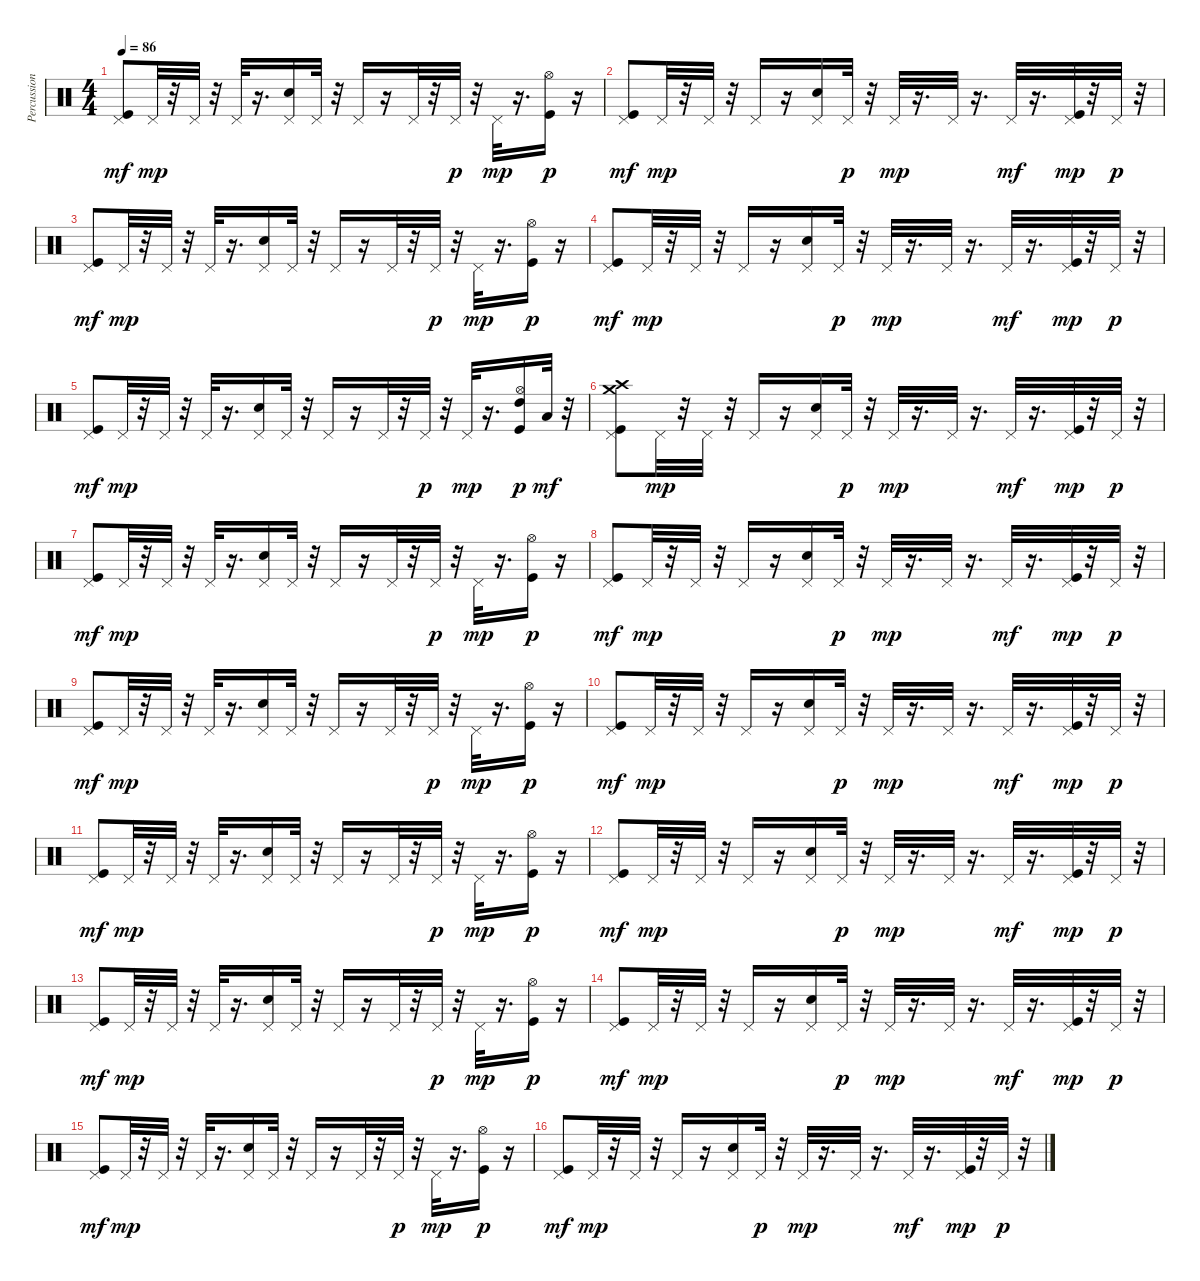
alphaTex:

\track ("Percussions" "Percussion") {instrument percussion}
\staff {score}
\articulation defaults
\ts (4 4)
\tempo 86
\clef neutral
\ks c
("Kick (hit)" "Pedal Hi-Hat (hit)").8{dy mf} "Pedal Hi-Hat (hit)".32{dy mp} r.32 "Pedal Hi-Hat (hit)".32 r.32 "Pedal Hi-Hat (hit)".32 r.16{d} ("Electric Snare (hit)" "Pedal Hi-Hat (hit)").16 "Pedal Hi-Hat (hit)".32 r.32 "Pedal Hi-Hat (hit)".16 r.16 "Pedal Hi-Hat (hit)".32 r.32 "Pedal Hi-Hat (hit)".32{dy p} r.32 "Pedal Hi-Hat (hit)".32{dy mp} r.16{d} ("Kick (hit)" "Hi-Hat (open)").16{dy p} r.16 |
("Kick (hit)" "Pedal Hi-Hat (hit)").8{dy mf} "Pedal Hi-Hat (hit)".32{dy mp} r.32 "Pedal Hi-Hat (hit)".32 r.32 "Pedal Hi-Hat (hit)".16 r.16 ("Electric Snare (hit)" "Pedal Hi-Hat (hit)").16 "Pedal Hi-Hat (hit)".32{dy p} r.32 "Pedal Hi-Hat (hit)".32{dy mp} r.16{d} "Pedal Hi-Hat (hit)".32 r.16{d} "Pedal Hi-Hat (hit)".32{dy mf} r.16{d} ("Kick (hit)" "Pedal Hi-Hat (hit)").32{dy mp} r.32 "Pedal Hi-Hat (hit)".32{dy p} r.32 |
("Kick (hit)" "Pedal Hi-Hat (hit)").8{dy mf} "Pedal Hi-Hat (hit)".32{dy mp} r.32 "Pedal Hi-Hat (hit)".32 r.32 "Pedal Hi-Hat (hit)".32 r.16{d} ("Electric Snare (hit)" "Pedal Hi-Hat (hit)").16 "Pedal Hi-Hat (hit)".32 r.32 "Pedal Hi-Hat (hit)".16 r.16 "Pedal Hi-Hat (hit)".32 r.32 "Pedal Hi-Hat (hit)".32{dy p} r.32 "Pedal Hi-Hat (hit)".32{dy mp} r.16{d} ("Kick (hit)" "Hi-Hat (open)").16{dy p} r.16 |
("Kick (hit)" "Pedal Hi-Hat (hit)").8{dy mf} "Pedal Hi-Hat (hit)".32{dy mp} r.32 "Pedal Hi-Hat (hit)".32 r.32 "Pedal Hi-Hat (hit)".16 r.16 ("Electric Snare (hit)" "Pedal Hi-Hat (hit)").16 "Pedal Hi-Hat (hit)".32{dy p} r.32 "Pedal Hi-Hat (hit)".32{dy mp} r.16{d} "Pedal Hi-Hat (hit)".32 r.16{d} "Pedal Hi-Hat (hit)".32{dy mf} r.16{d} ("Kick (hit)" "Pedal Hi-Hat (hit)").32{dy mp} r.32 "Pedal Hi-Hat (hit)".32{dy p} r.32 |
("Kick (hit)" "Pedal Hi-Hat (hit)").8{dy mf} "Pedal Hi-Hat (hit)".32{dy mp} r.32 "Pedal Hi-Hat (hit)".32 r.32 "Pedal Hi-Hat (hit)".32 r.16{d} ("Electric Snare (hit)" "Pedal Hi-Hat (hit)").16 "Pedal Hi-Hat (hit)".32 r.32 "Pedal Hi-Hat (hit)".16 r.16 "Pedal Hi-Hat (hit)".32 r.32 "Pedal Hi-Hat (hit)".32{dy p} r.32 "Pedal Hi-Hat (hit)".32{dy mp} r.16{d} ("Kick (hit)" "Hi-Hat (open)" "High Tom (hit)").16{dy p} "Low Tom (hit)".32{dy mf} r.32 |
("Kick (hit)" "Pedal Hi-Hat (hit)" "Crash high (hit)" "Crash medium (hit)").8 "Pedal Hi-Hat (hit)".32{dy mp} r.32 "Pedal Hi-Hat (hit)".32 r.32 "Pedal Hi-Hat (hit)".16 r.16 ("Electric Snare (hit)" "Pedal Hi-Hat (hit)").16 "Pedal Hi-Hat (hit)".32{dy p} r.32 "Pedal Hi-Hat (hit)".32{dy mp} r.16{d} "Pedal Hi-Hat (hit)".32 r.16{d} "Pedal Hi-Hat (hit)".32{dy mf} r.16{d} ("Kick (hit)" "Pedal Hi-Hat (hit)").32{dy mp} r.32 "Pedal Hi-Hat (hit)".32{dy p} r.32 |
("Kick (hit)" "Pedal Hi-Hat (hit)").8{dy mf} "Pedal Hi-Hat (hit)".32{dy mp} r.32 "Pedal Hi-Hat (hit)".32 r.32 "Pedal Hi-Hat (hit)".32 r.16{d} ("Electric Snare (hit)" "Pedal Hi-Hat (hit)").16 "Pedal Hi-Hat (hit)".32 r.32 "Pedal Hi-Hat (hit)".16 r.16 "Pedal Hi-Hat (hit)".32 r.32 "Pedal Hi-Hat (hit)".32{dy p} r.32 "Pedal Hi-Hat (hit)".32{dy mp} r.16{d} ("Kick (hit)" "Hi-Hat (open)").16{dy p} r.16 |
("Kick (hit)" "Pedal Hi-Hat (hit)").8{dy mf} "Pedal Hi-Hat (hit)".32{dy mp} r.32 "Pedal Hi-Hat (hit)".32 r.32 "Pedal Hi-Hat (hit)".16 r.16 ("Electric Snare (hit)" "Pedal Hi-Hat (hit)").16 "Pedal Hi-Hat (hit)".32{dy p} r.32 "Pedal Hi-Hat (hit)".32{dy mp} r.16{d} "Pedal Hi-Hat (hit)".32 r.16{d} "Pedal Hi-Hat (hit)".32{dy mf} r.16{d} ("Kick (hit)" "Pedal Hi-Hat (hit)").32{dy mp} r.32 "Pedal Hi-Hat (hit)".32{dy p} r.32 |
("Kick (hit)" "Pedal Hi-Hat (hit)").8{dy mf} "Pedal Hi-Hat (hit)".32{dy mp} r.32 "Pedal Hi-Hat (hit)".32 r.32 "Pedal Hi-Hat (hit)".32 r.16{d} ("Electric Snare (hit)" "Pedal Hi-Hat (hit)").16 "Pedal Hi-Hat (hit)".32 r.32 "Pedal Hi-Hat (hit)".16 r.16 "Pedal Hi-Hat (hit)".32 r.32 "Pedal Hi-Hat (hit)".32{dy p} r.32 "Pedal Hi-Hat (hit)".32{dy mp} r.16{d} ("Kick (hit)" "Hi-Hat (open)").16{dy p} r.16 |
("Kick (hit)" "Pedal Hi-Hat (hit)").8{dy mf} "Pedal Hi-Hat (hit)".32{dy mp} r.32 "Pedal Hi-Hat (hit)".32 r.32 "Pedal Hi-Hat (hit)".16 r.16 ("Electric Snare (hit)" "Pedal Hi-Hat (hit)").16 "Pedal Hi-Hat (hit)".32{dy p} r.32 "Pedal Hi-Hat (hit)".32{dy mp} r.16{d} "Pedal Hi-Hat (hit)".32 r.16{d} "Pedal Hi-Hat (hit)".32{dy mf} r.16{d} ("Kick (hit)" "Pedal Hi-Hat (hit)").32{dy mp} r.32 "Pedal Hi-Hat (hit)".32{dy p} r.32 |
("Kick (hit)" "Pedal Hi-Hat (hit)").8{dy mf} "Pedal Hi-Hat (hit)".32{dy mp} r.32 "Pedal Hi-Hat (hit)".32 r.32 "Pedal Hi-Hat (hit)".32 r.16{d} ("Electric Snare (hit)" "Pedal Hi-Hat (hit)").16 "Pedal Hi-Hat (hit)".32 r.32 "Pedal Hi-Hat (hit)".16 r.16 "Pedal Hi-Hat (hit)".32 r.32 "Pedal Hi-Hat (hit)".32{dy p} r.32 "Pedal Hi-Hat (hit)".32{dy mp} r.16{d} ("Kick (hit)" "Hi-Hat (open)").16{dy p} r.16 |
("Kick (hit)" "Pedal Hi-Hat (hit)").8{dy mf} "Pedal Hi-Hat (hit)".32{dy mp} r.32 "Pedal Hi-Hat (hit)".32 r.32 "Pedal Hi-Hat (hit)".16 r.16 ("Electric Snare (hit)" "Pedal Hi-Hat (hit)").16 "Pedal Hi-Hat (hit)".32{dy p} r.32 "Pedal Hi-Hat (hit)".32{dy mp} r.16{d} "Pedal Hi-Hat (hit)".32 r.16{d} "Pedal Hi-Hat (hit)".32{dy mf} r.16{d} ("Kick (hit)" "Pedal Hi-Hat (hit)").32{dy mp} r.32 "Pedal Hi-Hat (hit)".32{dy p} r.32 |
("Kick (hit)" "Pedal Hi-Hat (hit)").8{dy mf} "Pedal Hi-Hat (hit)".32{dy mp} r.32 "Pedal Hi-Hat (hit)".32 r.32 "Pedal Hi-Hat (hit)".32 r.16{d} ("Electric Snare (hit)" "Pedal Hi-Hat (hit)").16 "Pedal Hi-Hat (hit)".32 r.32 "Pedal Hi-Hat (hit)".16 r.16 "Pedal Hi-Hat (hit)".32 r.32 "Pedal Hi-Hat (hit)".32{dy p} r.32 "Pedal Hi-Hat (hit)".32{dy mp} r.16{d} ("Kick (hit)" "Hi-Hat (open)").16{dy p} r.16 |
("Kick (hit)" "Pedal Hi-Hat (hit)").8{dy mf} "Pedal Hi-Hat (hit)".32{dy mp} r.32 "Pedal Hi-Hat (hit)".32 r.32 "Pedal Hi-Hat (hit)".16 r.16 ("Electric Snare (hit)" "Pedal Hi-Hat (hit)").16 "Pedal Hi-Hat (hit)".32{dy p} r.32 "Pedal Hi-Hat (hit)".32{dy mp} r.16{d} "Pedal Hi-Hat (hit)".32 r.16{d} "Pedal Hi-Hat (hit)".32{dy mf} r.16{d} ("Kick (hit)" "Pedal Hi-Hat (hit)").32{dy mp} r.32 "Pedal Hi-Hat (hit)".32{dy p} r.32 |
("Kick (hit)" "Pedal Hi-Hat (hit)").8{dy mf} "Pedal Hi-Hat (hit)".32{dy mp} r.32 "Pedal Hi-Hat (hit)".32 r.32 "Pedal Hi-Hat (hit)".32 r.16{d} ("Electric Snare (hit)" "Pedal Hi-Hat (hit)").16 "Pedal Hi-Hat (hit)".32 r.32 "Pedal Hi-Hat (hit)".16 r.16 "Pedal Hi-Hat (hit)".32 r.32 "Pedal Hi-Hat (hit)".32{dy p} r.32 "Pedal Hi-Hat (hit)".32{dy mp} r.16{d} ("Kick (hit)" "Hi-Hat (open)").16{dy p} r.16 |
("Kick (hit)" "Pedal Hi-Hat (hit)").8{dy mf} "Pedal Hi-Hat (hit)".32{dy mp} r.32 "Pedal Hi-Hat (hit)".32 r.32 "Pedal Hi-Hat (hit)".16 r.16 ("Electric Snare (hit)" "Pedal Hi-Hat (hit)").16 "Pedal Hi-Hat (hit)".32{dy p} r.32 "Pedal Hi-Hat (hit)".32{dy mp} r.16{d} "Pedal Hi-Hat (hit)".32 r.16{d} "Pedal Hi-Hat (hit)".32{dy mf} r.16{d} ("Kick (hit)" "Pedal Hi-Hat (hit)").32{dy mp} r.32 "Pedal Hi-Hat (hit)".32{dy p} r.32
